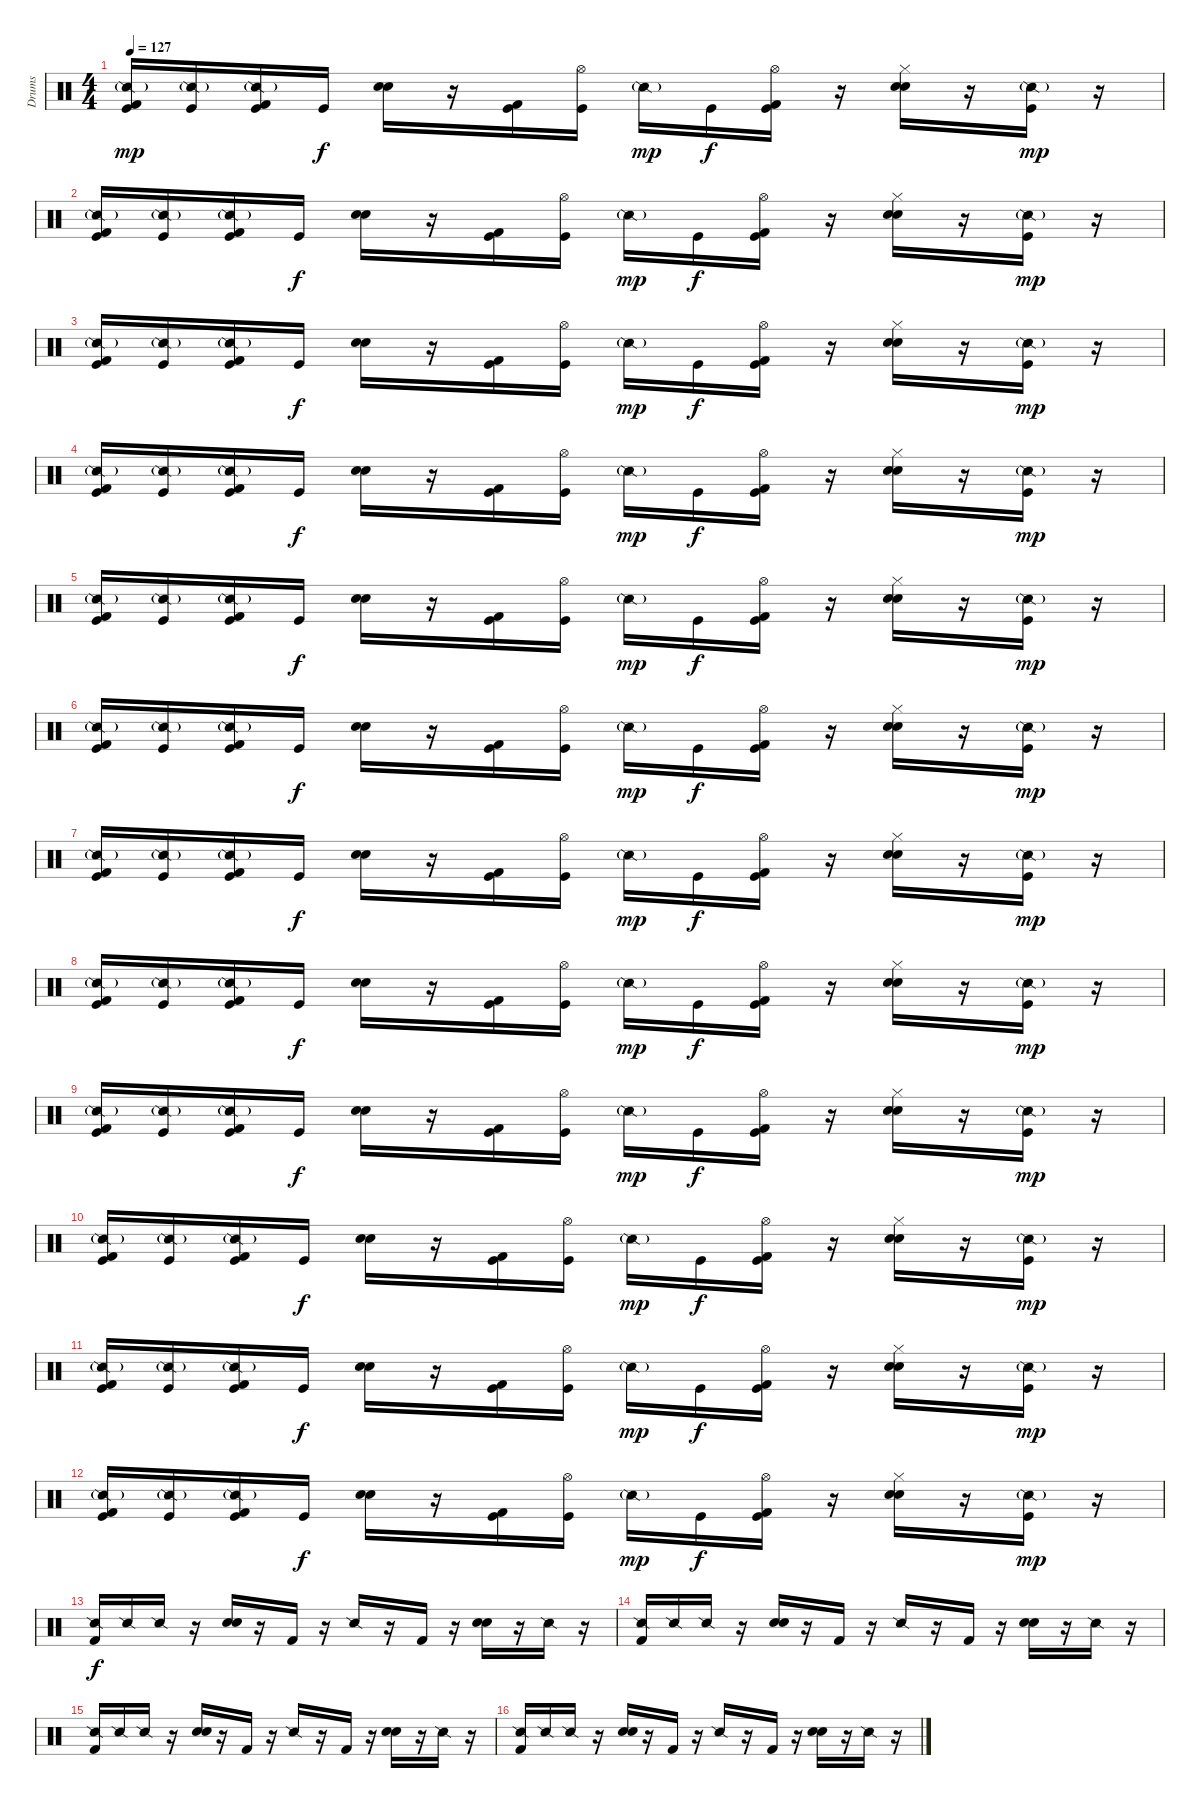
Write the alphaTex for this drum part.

\track ("Drums" "Drums") {instrument percussion}
\staff {score}
\articulation defaults
\ts (4 4)
\tempo 127
\clef neutral
\ks c
("Snare (side stick) 2"{g} "Kick (hit) 2" "Kick (hit)").16{dy mp} ("Snare (side stick) 2"{g} "Kick (hit)").16 ("Snare (side stick) 2"{g} "Kick (hit) 2" "Kick (hit)").16 "Kick (hit)".16{dy f} ("Snare (hit) 2" "Hand Clap (hit)").16 r.16 ("Kick (hit) 2" "Kick (hit)").16 ("Hi-Hat (open)" "Kick (hit)").16 "Snare (side stick) 2"{g}.16{dy mp} "Kick (hit)".16{dy f} ("Hi-Hat (open)" "Kick (hit) 2" "Kick (hit)").16 r.16 ("Hi-Hat (closed)" "Snare (hit) 2" "Hand Clap (hit)").16 r.16 ("Snare (side stick) 2"{g} "Kick (hit)").16{dy mp} r.16 |
("Snare (side stick) 2"{g} "Kick (hit) 2" "Kick (hit)").16 ("Snare (side stick) 2"{g} "Kick (hit)").16 ("Snare (side stick) 2"{g} "Kick (hit) 2" "Kick (hit)").16 "Kick (hit)".16{dy f} ("Snare (hit) 2" "Hand Clap (hit)").16 r.16 ("Kick (hit) 2" "Kick (hit)").16 ("Hi-Hat (open)" "Kick (hit)").16 "Snare (side stick) 2"{g}.16{dy mp} "Kick (hit)".16{dy f} ("Hi-Hat (open)" "Kick (hit) 2" "Kick (hit)").16 r.16 ("Hi-Hat (closed)" "Snare (hit) 2" "Hand Clap (hit)").16 r.16 ("Snare (side stick) 2"{g} "Kick (hit)").16{dy mp} r.16 |
("Snare (side stick) 2"{g} "Kick (hit) 2" "Kick (hit)").16 ("Snare (side stick) 2"{g} "Kick (hit)").16 ("Snare (side stick) 2"{g} "Kick (hit) 2" "Kick (hit)").16 "Kick (hit)".16{dy f} ("Snare (hit) 2" "Hand Clap (hit)").16 r.16 ("Kick (hit) 2" "Kick (hit)").16 ("Hi-Hat (open)" "Kick (hit)").16 "Snare (side stick) 2"{g}.16{dy mp} "Kick (hit)".16{dy f} ("Hi-Hat (open)" "Kick (hit) 2" "Kick (hit)").16 r.16 ("Hi-Hat (closed)" "Snare (hit) 2" "Hand Clap (hit)").16 r.16 ("Snare (side stick) 2"{g} "Kick (hit)").16{dy mp} r.16 |
("Snare (side stick) 2"{g} "Kick (hit) 2" "Kick (hit)").16 ("Snare (side stick) 2"{g} "Kick (hit)").16 ("Snare (side stick) 2"{g} "Kick (hit) 2" "Kick (hit)").16 "Kick (hit)".16{dy f} ("Snare (hit) 2" "Hand Clap (hit)").16 r.16 ("Kick (hit) 2" "Kick (hit)").16 ("Hi-Hat (open)" "Kick (hit)").16 "Snare (side stick) 2"{g}.16{dy mp} "Kick (hit)".16{dy f} ("Hi-Hat (open)" "Kick (hit) 2" "Kick (hit)").16 r.16 ("Hi-Hat (closed)" "Snare (hit) 2" "Hand Clap (hit)").16 r.16 ("Snare (side stick) 2"{g} "Kick (hit)").16{dy mp} r.16 |
("Snare (side stick) 2"{g} "Kick (hit) 2" "Kick (hit)").16 ("Snare (side stick) 2"{g} "Kick (hit)").16 ("Snare (side stick) 2"{g} "Kick (hit) 2" "Kick (hit)").16 "Kick (hit)".16{dy f} ("Snare (hit) 2" "Hand Clap (hit)").16 r.16 ("Kick (hit) 2" "Kick (hit)").16 ("Hi-Hat (open)" "Kick (hit)").16 "Snare (side stick) 2"{g}.16{dy mp} "Kick (hit)".16{dy f} ("Hi-Hat (open)" "Kick (hit) 2" "Kick (hit)").16 r.16 ("Hi-Hat (closed)" "Snare (hit) 2" "Hand Clap (hit)").16 r.16 ("Snare (side stick) 2"{g} "Kick (hit)").16{dy mp} r.16 |
("Snare (side stick) 2"{g} "Kick (hit) 2" "Kick (hit)").16 ("Snare (side stick) 2"{g} "Kick (hit)").16 ("Snare (side stick) 2"{g} "Kick (hit) 2" "Kick (hit)").16 "Kick (hit)".16{dy f} ("Snare (hit) 2" "Hand Clap (hit)").16 r.16 ("Kick (hit) 2" "Kick (hit)").16 ("Hi-Hat (open)" "Kick (hit)").16 "Snare (side stick) 2"{g}.16{dy mp} "Kick (hit)".16{dy f} ("Hi-Hat (open)" "Kick (hit) 2" "Kick (hit)").16 r.16 ("Hi-Hat (closed)" "Snare (hit) 2" "Hand Clap (hit)").16 r.16 ("Snare (side stick) 2"{g} "Kick (hit)").16{dy mp} r.16 |
("Snare (side stick) 2"{g} "Kick (hit) 2" "Kick (hit)").16 ("Snare (side stick) 2"{g} "Kick (hit)").16 ("Snare (side stick) 2"{g} "Kick (hit) 2" "Kick (hit)").16 "Kick (hit)".16{dy f} ("Snare (hit) 2" "Hand Clap (hit)").16 r.16 ("Kick (hit) 2" "Kick (hit)").16 ("Hi-Hat (open)" "Kick (hit)").16 "Snare (side stick) 2"{g}.16{dy mp} "Kick (hit)".16{dy f} ("Hi-Hat (open)" "Kick (hit) 2" "Kick (hit)").16 r.16 ("Hi-Hat (closed)" "Snare (hit) 2" "Hand Clap (hit)").16 r.16 ("Snare (side stick) 2"{g} "Kick (hit)").16{dy mp} r.16 |
("Snare (side stick) 2"{g} "Kick (hit) 2" "Kick (hit)").16 ("Snare (side stick) 2"{g} "Kick (hit)").16 ("Snare (side stick) 2"{g} "Kick (hit) 2" "Kick (hit)").16 "Kick (hit)".16{dy f} ("Snare (hit) 2" "Hand Clap (hit)").16 r.16 ("Kick (hit) 2" "Kick (hit)").16 ("Hi-Hat (open)" "Kick (hit)").16 "Snare (side stick) 2"{g}.16{dy mp} "Kick (hit)".16{dy f} ("Hi-Hat (open)" "Kick (hit) 2" "Kick (hit)").16 r.16 ("Hi-Hat (closed)" "Snare (hit) 2" "Hand Clap (hit)").16 r.16 ("Snare (side stick) 2"{g} "Kick (hit)").16{dy mp} r.16 |
("Snare (side stick) 2"{g} "Kick (hit) 2" "Kick (hit)").16 ("Snare (side stick) 2"{g} "Kick (hit)").16 ("Snare (side stick) 2"{g} "Kick (hit) 2" "Kick (hit)").16 "Kick (hit)".16{dy f} ("Snare (hit) 2" "Hand Clap (hit)").16 r.16 ("Kick (hit) 2" "Kick (hit)").16 ("Hi-Hat (open)" "Kick (hit)").16 "Snare (side stick) 2"{g}.16{dy mp} "Kick (hit)".16{dy f} ("Hi-Hat (open)" "Kick (hit) 2" "Kick (hit)").16 r.16 ("Hi-Hat (closed)" "Snare (hit) 2" "Hand Clap (hit)").16 r.16 ("Snare (side stick) 2"{g} "Kick (hit)").16{dy mp} r.16 |
("Snare (side stick) 2"{g} "Kick (hit) 2" "Kick (hit)").16 ("Snare (side stick) 2"{g} "Kick (hit)").16 ("Snare (side stick) 2"{g} "Kick (hit) 2" "Kick (hit)").16 "Kick (hit)".16{dy f} ("Snare (hit) 2" "Hand Clap (hit)").16 r.16 ("Kick (hit) 2" "Kick (hit)").16 ("Hi-Hat (open)" "Kick (hit)").16 "Snare (side stick) 2"{g}.16{dy mp} "Kick (hit)".16{dy f} ("Hi-Hat (open)" "Kick (hit) 2" "Kick (hit)").16 r.16 ("Hi-Hat (closed)" "Snare (hit) 2" "Hand Clap (hit)").16 r.16 ("Snare (side stick) 2"{g} "Kick (hit)").16{dy mp} r.16 |
("Snare (side stick) 2"{g} "Kick (hit) 2" "Kick (hit)").16 ("Snare (side stick) 2"{g} "Kick (hit)").16 ("Snare (side stick) 2"{g} "Kick (hit) 2" "Kick (hit)").16 "Kick (hit)".16{dy f} ("Snare (hit) 2" "Hand Clap (hit)").16 r.16 ("Kick (hit) 2" "Kick (hit)").16 ("Hi-Hat (open)" "Kick (hit)").16 "Snare (side stick) 2"{g}.16{dy mp} "Kick (hit)".16{dy f} ("Hi-Hat (open)" "Kick (hit) 2" "Kick (hit)").16 r.16 ("Hi-Hat (closed)" "Snare (hit) 2" "Hand Clap (hit)").16 r.16 ("Snare (side stick) 2"{g} "Kick (hit)").16{dy mp} r.16 |
("Snare (side stick) 2"{g} "Kick (hit) 2" "Kick (hit)").16 ("Snare (side stick) 2"{g} "Kick (hit)").16 ("Snare (side stick) 2"{g} "Kick (hit) 2" "Kick (hit)").16 "Kick (hit)".16{dy f} ("Snare (hit) 2" "Hand Clap (hit)").16 r.16 ("Kick (hit) 2" "Kick (hit)").16 ("Hi-Hat (open)" "Kick (hit)").16 "Snare (side stick) 2"{g}.16{dy mp} "Kick (hit)".16{dy f} ("Hi-Hat (open)" "Kick (hit) 2" "Kick (hit)").16 r.16 ("Hi-Hat (closed)" "Snare (hit) 2" "Hand Clap (hit)").16 r.16 ("Snare (side stick) 2"{g} "Kick (hit)").16{dy mp} r.16 |
("Snare (side stick) 2" "Kick (hit) 2").16{dy f} "Snare (side stick) 2".16 "Snare (side stick) 2".16 r.16 ("Snare (hit) 2" "Hand Clap (hit)").16 r.16 "Kick (hit) 2".16 r.16 "Snare (side stick) 2".16 r.16 "Kick (hit) 2".16 r.16 ("Snare (hit) 2" "Hand Clap (hit)").16 r.16 "Snare (side stick) 2".16 r.16 |
("Snare (side stick) 2" "Kick (hit) 2").16 "Snare (side stick) 2".16 "Snare (side stick) 2".16 r.16 ("Snare (hit) 2" "Hand Clap (hit)").16 r.16 "Kick (hit) 2".16 r.16 "Snare (side stick) 2".16 r.16 "Kick (hit) 2".16 r.16 ("Snare (hit) 2" "Hand Clap (hit)").16 r.16 "Snare (side stick) 2".16 r.16 |
("Snare (side stick) 2" "Kick (hit) 2").16 "Snare (side stick) 2".16 "Snare (side stick) 2".16 r.16 ("Snare (hit) 2" "Hand Clap (hit)").16 r.16 "Kick (hit) 2".16 r.16 "Snare (side stick) 2".16 r.16 "Kick (hit) 2".16 r.16 ("Snare (hit) 2" "Hand Clap (hit)").16 r.16 "Snare (side stick) 2".16 r.16 |
("Snare (side stick) 2" "Kick (hit) 2").16 "Snare (side stick) 2".16 "Snare (side stick) 2".16 r.16 ("Snare (hit) 2" "Hand Clap (hit)").16 r.16 "Kick (hit) 2".16 r.16 "Snare (side stick) 2".16 r.16 "Kick (hit) 2".16 r.16 ("Snare (hit) 2" "Hand Clap (hit)").16 r.16 "Snare (side stick) 2".16 r.16
